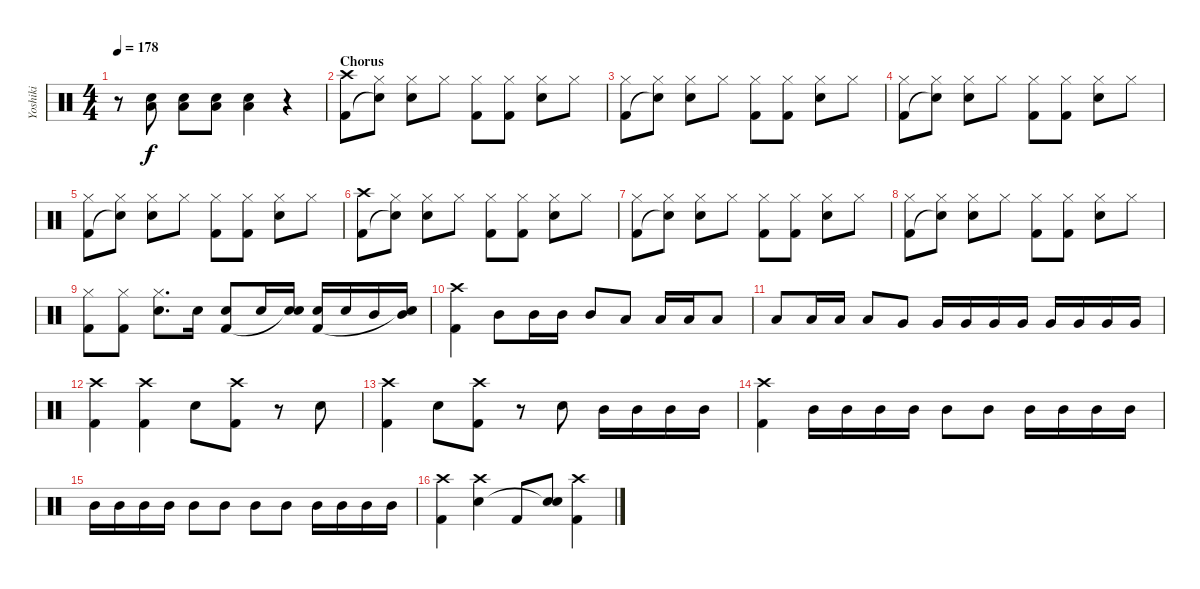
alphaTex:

\track ("Yoshiki" "Yoshiki") {instrument percussion}
\staff {score}
\articulation defaults
\ts (4 4)
\tempo 178
\clef neutral
\ks c
r.8{dy f} ("Snare (hit) 2" "Low Floor Tom (hit)").8 ("Snare (hit) 2" "Low Floor Tom (hit)").8 ("Snare (hit) 2" "Low Floor Tom (hit)").8 ("Snare (hit) 2" "Low Floor Tom (hit)").4 r.4 |
\section ("" "Chorus")
("Crash high (hit)" "Kick (hit) 2").8 ("Hi-Hat (closed)" "Snare (hit)"{t}).8 ("Hi-Hat (closed)" "Snare (hit) 2").8 "Hi-Hat (closed)".8 ("Hi-Hat (closed)" "Kick (hit) 2").8 ("Hi-Hat (closed)" "Kick (hit) 2").8 ("Hi-Hat (closed)" "Snare (hit) 2").8 "Hi-Hat (closed)".8 |
("Hi-Hat (closed)" "Kick (hit) 2").8 ("Hi-Hat (closed)" "Snare (hit)"{t}).8 ("Hi-Hat (closed)" "Snare (hit) 2").8 "Hi-Hat (closed)".8 ("Hi-Hat (closed)" "Kick (hit) 2").8 ("Hi-Hat (closed)" "Kick (hit) 2").8 ("Hi-Hat (closed)" "Snare (hit) 2").8 "Hi-Hat (closed)".8 |
("Hi-Hat (closed)" "Kick (hit) 2").8 ("Hi-Hat (closed)" "Snare (hit)"{t}).8 ("Hi-Hat (closed)" "Snare (hit) 2").8 "Hi-Hat (closed)".8 ("Hi-Hat (closed)" "Kick (hit) 2").8 ("Hi-Hat (closed)" "Kick (hit) 2").8 ("Hi-Hat (closed)" "Snare (hit) 2").8 "Hi-Hat (closed)".8 |
("Hi-Hat (closed)" "Kick (hit) 2").8 ("Hi-Hat (closed)" "Snare (hit)"{t}).8 ("Hi-Hat (closed)" "Snare (hit) 2").8 "Hi-Hat (closed)".8 ("Hi-Hat (closed)" "Kick (hit) 2").8 ("Hi-Hat (closed)" "Kick (hit) 2").8 ("Hi-Hat (closed)" "Snare (hit) 2").8 "Hi-Hat (closed)".8 |
("Crash high (hit)" "Kick (hit) 2").8 ("Hi-Hat (closed)" "Snare (hit)"{t}).8 ("Hi-Hat (closed)" "Snare (hit) 2").8 "Hi-Hat (closed)".8 ("Hi-Hat (closed)" "Kick (hit) 2").8 ("Hi-Hat (closed)" "Kick (hit) 2").8 ("Hi-Hat (closed)" "Snare (hit) 2").8 "Hi-Hat (closed)".8 |
("Hi-Hat (closed)" "Kick (hit) 2").8 ("Hi-Hat (closed)" "Snare (hit)"{t}).8 ("Hi-Hat (closed)" "Snare (hit) 2").8 "Hi-Hat (closed)".8 ("Hi-Hat (closed)" "Kick (hit) 2").8 ("Hi-Hat (closed)" "Kick (hit) 2").8 ("Hi-Hat (closed)" "Snare (hit) 2").8 "Hi-Hat (closed)".8 |
("Hi-Hat (closed)" "Kick (hit) 2").8 ("Hi-Hat (closed)" "Snare (hit)"{t}).8 ("Hi-Hat (closed)" "Snare (hit) 2").8 "Hi-Hat (closed)".8 ("Hi-Hat (closed)" "Kick (hit) 2").8 ("Hi-Hat (closed)" "Kick (hit) 2").8 ("Hi-Hat (closed)" "Snare (hit) 2").8 "Hi-Hat (closed)".8 |
("Hi-Hat (closed)" "Kick (hit) 2").8 ("Hi-Hat (closed)" "Kick (hit) 2").8 ("Hi-Hat (closed)" "Snare (hit) 2").8{d} "Snare (hit) 2".16 ("Snare (hit) 2" "Kick (hit) 2").8 "Snare (hit) 2".16 ("Snare (hit) 2" "Snare (hit)"{t}).16 ("Snare (hit) 2" "Kick (hit) 2").16 "Snare (hit) 2".16 "Mid Tom (hit)".16 ("Mid Tom (hit)" "Snare (hit)"{t}).16 |
("Crash high (hit)" "Kick (hit) 2").4 "Mid Tom (hit)".8 "Mid Tom (hit)".16 "Mid Tom (hit)".16 "Mid Tom (hit)".8 "Low Tom (hit)".8 "Low Tom (hit)".16 "Low Tom (hit)".16 "Low Tom (hit)".8 |
"Low Tom (hit)".8 "Low Tom (hit)".16 "Low Tom (hit)".16 "Low Tom (hit)".8 "Very Low Tom (hit)".8 "Very Low Tom (hit)".16 "Very Low Tom (hit)".16 "Very Low Tom (hit)".16 "Very Low Tom (hit)".16 "Very Low Tom (hit)".16 "Very Low Tom (hit)".16 "Very Low Tom (hit)".16 "Very Low Tom (hit)".16 |
("Crash high (hit)" "Kick (hit) 2").4 ("Crash high (hit)" "Kick (hit) 2").4 "Snare (hit) 2".8 ("Crash high (hit)" "Kick (hit) 2").8 r.8 "Snare (hit) 2".8 |
("Crash high (hit)" "Kick (hit) 2").4 "Snare (hit) 2".8 ("Crash high (hit)" "Kick (hit) 2").8 r.8 "Snare (hit) 2".8 "Mid Tom (hit)".16 "Mid Tom (hit)".16 "Mid Tom (hit)".16 "Mid Tom (hit)".16 |
("Crash high (hit)" "Kick (hit) 2").4 "Mid Tom (hit)".16 "Mid Tom (hit)".16 "Mid Tom (hit)".16 "Mid Tom (hit)".16 "Mid Tom (hit)".8 "Mid Tom (hit)".8 "Mid Tom (hit)".16 "Mid Tom (hit)".16 "Mid Tom (hit)".16 "Mid Tom (hit)".16 |
"Mid Tom (hit)".16 "Mid Tom (hit)".16 "Mid Tom (hit)".16 "Mid Tom (hit)".16 "Mid Tom (hit)".8 "Mid Tom (hit)".8 "Mid Tom (hit)".8 "Mid Tom (hit)".8 "Mid Tom (hit)".16 "Mid Tom (hit)".16 "Mid Tom (hit)".16 "Mid Tom (hit)".16 |
("Crash high (hit)" "Kick (hit) 2").4 ("Crash high (hit)" "Snare (hit) 2").4 "Kick (hit) 2".8 ("Snare (hit) 2" "Snare (hit)"{t}).8 ("Crash high (hit)" "Kick (hit) 2").4
